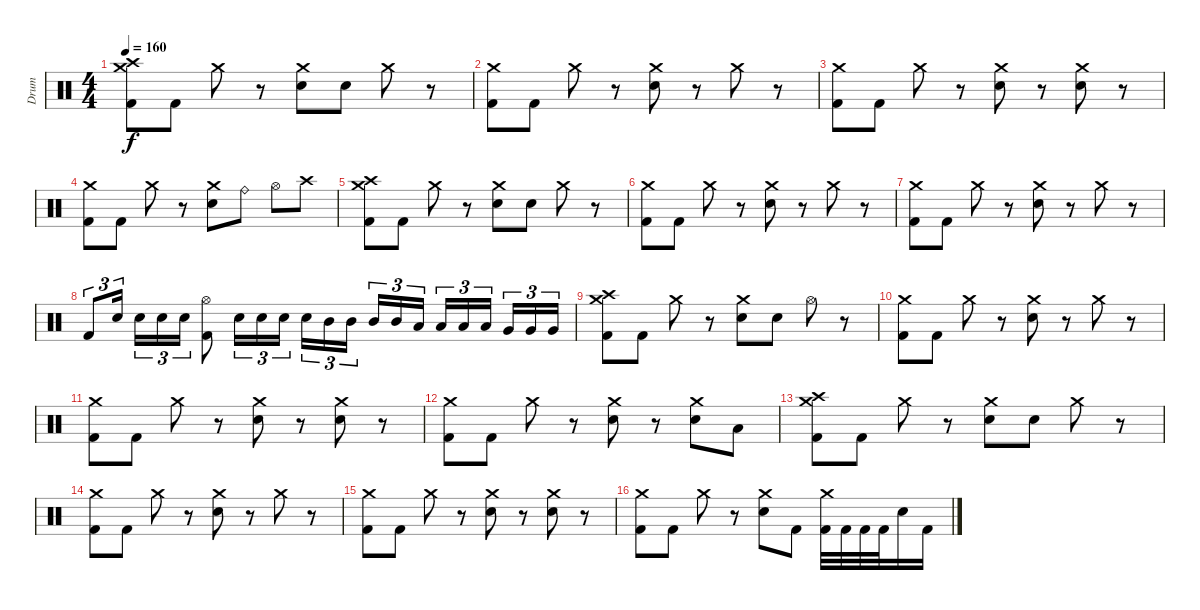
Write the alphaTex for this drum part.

\track ("Drum" "Drum") {instrument percussion}
\staff {score}
\articulation defaults
\ts (4 4)
\tempo 160
\clef neutral
\ks c
("Crash high (hit)" "Crash medium (hit)" "Kick (hit) 2").8{dy f} "Kick (hit) 2".8 "Crash medium (hit)".8 r.8 ("Crash medium (hit)" "Electric Snare (hit)").8 "Electric Snare (hit)".8 "Crash medium (hit)".8 r.8 |
("Crash medium (hit)" "Kick (hit) 2").8 "Kick (hit) 2".8 "Crash medium (hit)".8 r.8 ("Crash medium (hit)" "Electric Snare (hit)").8 r.8 "Crash medium (hit)".8 r.8 |
("Crash medium (hit)" "Kick (hit) 2").8 "Kick (hit) 2".8 "Crash medium (hit)".8 r.8 ("Crash medium (hit)" "Electric Snare (hit)").8 r.8 ("Crash medium (hit)" "Electric Snare (hit)").8 r.8 |
("Crash medium (hit)" "Kick (hit) 2").8 "Kick (hit) 2".8 "Crash medium (hit)".8 r.8 ("Crash medium (hit)" "Electric Snare (hit)").8 "Ride (bell)".8 "Hi-Hat (open)".8 "Crash high (hit)".8 |
("Crash high (hit)" "Crash medium (hit)" "Kick (hit) 2").8 "Kick (hit) 2".8 "Crash medium (hit)".8 r.8 ("Crash medium (hit)" "Electric Snare (hit)").8 "Electric Snare (hit)".8 "Crash medium (hit)".8 r.8 |
("Crash medium (hit)" "Kick (hit) 2").8 "Kick (hit) 2".8 "Crash medium (hit)".8 r.8 ("Crash medium (hit)" "Electric Snare (hit)").8 r.8 "Crash medium (hit)".8 r.8 |
("Crash medium (hit)" "Kick (hit) 2").8 "Kick (hit) 2".8 "Crash medium (hit)".8 r.8 ("Crash medium (hit)" "Electric Snare (hit)").8 r.8 "Crash medium (hit)".8 r.8 |
"Kick (hit) 2".8{tu (3 2)} "Electric Snare (hit)".16{tu (3 2) beam splitsecondary} "Electric Snare (hit)".16{tu (3 2)} "Electric Snare (hit)".16{tu (3 2)} "Electric Snare (hit)".16{tu (3 2)} ("Hi-Hat (open)" "Kick (hit) 2").8 "Electric Snare (hit)".16{tu (3 2)} "Electric Snare (hit)".16{tu (3 2)} "Electric Snare (hit)".16{tu (3 2)} "Electric Snare (hit)".16{tu (3 2)} "Mid Tom (hit)".16{tu (3 2)} "Mid Tom (hit)".16{tu (3 2) beam splitsecondary} "Mid Tom (hit)".16{tu (3 2)} "Mid Tom (hit)".16{tu (3 2)} "Low Tom (hit)".16{tu (3 2)} "Low Tom (hit)".16{tu (3 2)} "Low Tom (hit)".16{tu (3 2)} "Low Tom (hit)".16{tu (3 2) beam splitsecondary} "Very Low Tom (hit)".16{tu (3 2)} "Very Low Tom (hit)".16{tu (3 2)} "Very Low Tom (hit)".16{tu (3 2)} |
("Crash high (hit)" "Crash medium (hit)" "Kick (hit) 2").8 "Kick (hit) 2".8 "Crash medium (hit)".8 r.8 ("Crash medium (hit)" "Electric Snare (hit)").8 "Electric Snare (hit)".8 "Hi-Hat (open)".8 r.8 |
("Crash medium (hit)" "Kick (hit) 2").8 "Kick (hit) 2".8 "Crash medium (hit)".8 r.8 ("Crash medium (hit)" "Electric Snare (hit)").8 r.8 "Crash medium (hit)".8 r.8 |
("Crash medium (hit)" "Kick (hit) 2").8 "Kick (hit) 2".8 "Crash medium (hit)".8 r.8 ("Crash medium (hit)" "Electric Snare (hit)").8 r.8 ("Crash medium (hit)" "Electric Snare (hit)").8 r.8 |
("Crash medium (hit)" "Kick (hit) 2").8 "Kick (hit) 2".8 "Crash medium (hit)".8 r.8 ("Crash medium (hit)" "Electric Snare (hit)").8 r.8 ("Crash medium (hit)" "Electric Snare (hit)").8 "Low Tom (hit)".8 |
("Crash high (hit)" "Crash medium (hit)" "Kick (hit) 2").8 "Kick (hit) 2".8 "Crash medium (hit)".8 r.8 ("Crash medium (hit)" "Electric Snare (hit)").8 "Electric Snare (hit)".8 "Crash medium (hit)".8 r.8 |
("Crash medium (hit)" "Kick (hit) 2").8 "Kick (hit) 2".8 "Crash medium (hit)".8 r.8 ("Crash medium (hit)" "Electric Snare (hit)").8 r.8 "Crash medium (hit)".8 r.8 |
("Crash medium (hit)" "Kick (hit) 2").8 "Kick (hit) 2".8 "Crash medium (hit)".8 r.8 ("Crash medium (hit)" "Electric Snare (hit)").8 r.8 ("Crash medium (hit)" "Electric Snare (hit)").8 r.8 |
("Crash medium (hit)" "Kick (hit) 2").8 "Kick (hit) 2".8 "Crash medium (hit)".8 r.8 ("Crash medium (hit)" "Electric Snare (hit)").8 "Kick (hit) 2".8 ("Crash medium (hit)" "Kick (hit) 2").32 "Kick (hit) 2".32 "Kick (hit) 2".32 "Kick (hit) 2".32 "Electric Snare (hit)".16 "Kick (hit) 2".16
